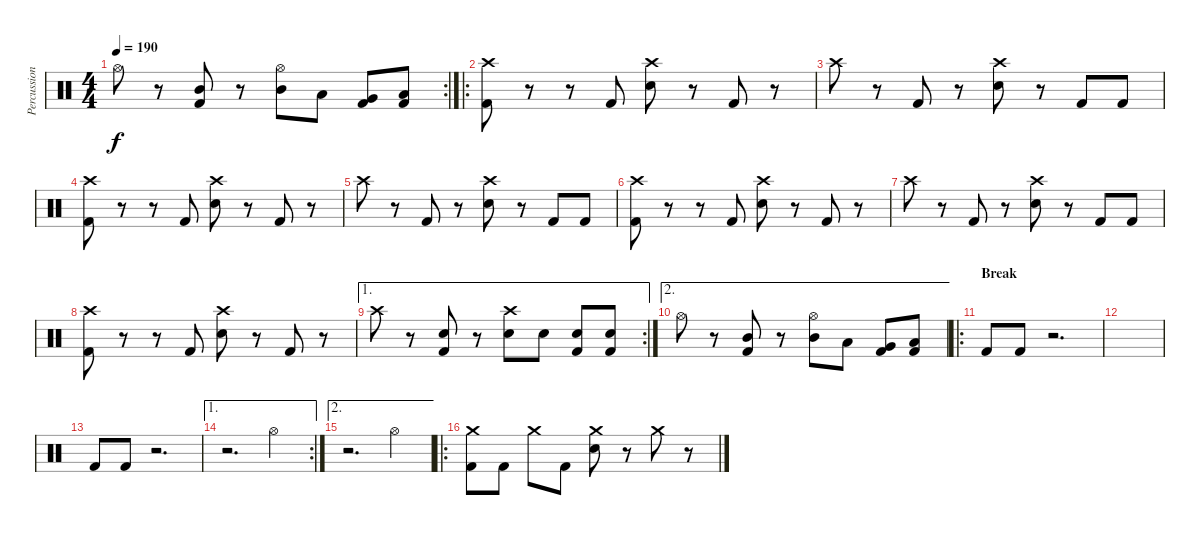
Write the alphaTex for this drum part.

\track ("Percussion" "Percussion") {instrument percussion}
\staff {score}
\articulation defaults
\rc 2
\ts (4 4)
\tempo 190
\clef neutral
\ks c "Hi-Hat (open)".8{dy f}
r.8 ("Mid Tom (hit)" "Kick (hit) 2").8 r.8 ("Hi-Hat (open)" "Mid Tom (hit)").8 "Low Tom (hit)".8 ("Very Low Tom (hit)" "Kick (hit) 2").8 ("Low Floor Tom (hit)" "Kick (hit) 2").8 |
\ro
("Crash high (hit)" "Kick (hit) 2").8 r.8 r.8 "Kick (hit) 2".8 ("Crash high (hit)" "Electric Snare (hit)").8 r.8 "Kick (hit) 2".8 r.8 |
"Crash high (hit)".8 r.8 "Kick (hit) 2".8 r.8 ("Crash high (hit)" "Electric Snare (hit)").8 r.8 "Kick (hit) 2".8 "Kick (hit) 2".8 |
("Crash high (hit)" "Kick (hit) 2").8 r.8 r.8 "Kick (hit) 2".8 ("Crash high (hit)" "Electric Snare (hit)").8 r.8 "Kick (hit) 2".8 r.8 |
"Crash high (hit)".8 r.8 "Kick (hit) 2".8 r.8 ("Crash high (hit)" "Electric Snare (hit)").8 r.8 "Kick (hit) 2".8 "Kick (hit) 2".8 |
("Crash high (hit)" "Kick (hit) 2").8 r.8 r.8 "Kick (hit) 2".8 ("Crash high (hit)" "Electric Snare (hit)").8 r.8 "Kick (hit) 2".8 r.8 |
"Crash high (hit)".8 r.8 "Kick (hit) 2".8 r.8 ("Crash high (hit)" "Electric Snare (hit)").8 r.8 "Kick (hit) 2".8 "Kick (hit) 2".8 |
("Crash high (hit)" "Kick (hit) 2").8 r.8 r.8 "Kick (hit) 2".8 ("Crash high (hit)" "Electric Snare (hit)").8 r.8 "Kick (hit) 2".8 r.8 |
\ae 1
\rc 2 "Crash high (hit)".8
r.8 ("Electric Snare (hit)" "Kick (hit) 2").8 r.8 ("Crash high (hit)" "Electric Snare (hit)").8 "Electric Snare (hit)".8 ("Electric Snare (hit)" "Kick (hit) 2").8 ("Electric Snare (hit)" "Kick (hit) 2").8 |
\ae 2 "Hi-Hat (open)".8
r.8 ("Mid Tom (hit)" "Kick (hit) 2").8 r.8 ("Hi-Hat (open)" "Mid Tom (hit)").8 "Low Tom (hit)".8 ("Very Low Tom (hit)" "Kick (hit) 2").8 ("Low Floor Tom (hit)" "Kick (hit) 2").8 |
\ro
\section ("" "Break")
"Kick (hit) 2".8 "Kick (hit) 2".8 r.2{d} |
|
"Kick (hit) 2".8 "Kick (hit) 2".8 r.2{d} |
\ae 1
\rc 2
r.2{d} "Hi-Hat (open)".4 |
\ae 2
r.2{d} "Hi-Hat (open)".4 |
\ro
("Crash medium (hit)" "Kick (hit) 2").8 "Kick (hit) 2".8 "Crash medium (hit)".8 "Kick (hit) 2".8 ("Crash medium (hit)" "Electric Snare (hit)").8 r.8 "Crash medium (hit)".8 r.8
